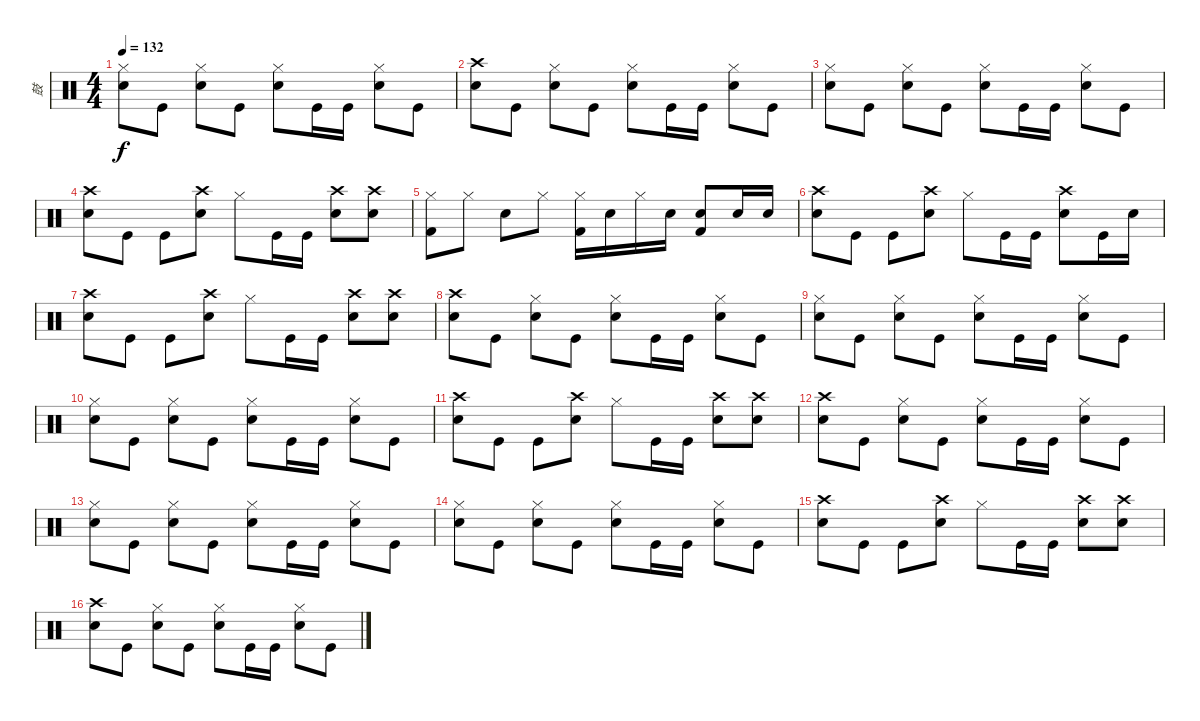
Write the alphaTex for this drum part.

\track ("鼓" "鼓") {instrument percussion}
\staff {score}
\articulation defaults
\ts (4 4)
\tempo 132
\clef neutral
\ks c
("Hi-Hat (closed)" "Electric Snare (hit)").8{dy f} "Kick (hit)".8 ("Hi-Hat (closed)" "Electric Snare (hit)").8 "Kick (hit)".8 ("Hi-Hat (closed)" "Electric Snare (hit)").8 "Kick (hit)".16 "Kick (hit)".16 ("Hi-Hat (closed)" "Electric Snare (hit)").8 "Kick (hit)".8 |
("Crash high (hit)" "Electric Snare (hit)").8 "Kick (hit)".8 ("Hi-Hat (closed)" "Electric Snare (hit)").8 "Kick (hit)".8 ("Hi-Hat (closed)" "Electric Snare (hit)").8 "Kick (hit)".16 "Kick (hit)".16 ("Hi-Hat (closed)" "Electric Snare (hit)").8 "Kick (hit)".8 |
("Hi-Hat (closed)" "Electric Snare (hit)").8 "Kick (hit)".8 ("Hi-Hat (closed)" "Electric Snare (hit)").8 "Kick (hit)".8 ("Hi-Hat (closed)" "Electric Snare (hit)").8 "Kick (hit)".16 "Kick (hit)".16 ("Hi-Hat (closed)" "Electric Snare (hit)").8 "Kick (hit)".8 |
("Crash high (hit)" "Electric Snare (hit)").8 "Kick (hit)".8 "Kick (hit)".8 ("Crash high (hit)" "Electric Snare (hit)").8 "Hi-Hat (closed)".8 "Kick (hit)".16 "Kick (hit)".16 ("Crash high (hit)" "Electric Snare (hit)").8 ("Crash high (hit)" "Electric Snare (hit)").8 |
("Hi-Hat (closed)" "Kick (hit) 2").8 "Hi-Hat (closed)".8 "Snare (hit) 2".8 "Hi-Hat (closed)".8 ("Hi-Hat (closed)" "Kick (hit) 2").16 "Snare (hit) 2".16 "Hi-Hat (closed)".16 "Snare (hit) 2".16 ("Snare (hit) 2" "Kick (hit) 2").8 "Snare (hit) 2".16 "Snare (hit) 2".16 |
("Crash high (hit)" "Electric Snare (hit)").8 "Kick (hit)".8 "Kick (hit)".8 ("Crash high (hit)" "Electric Snare (hit)").8 "Hi-Hat (closed)".8 "Kick (hit)".16 "Kick (hit)".16 ("Crash high (hit)" "Electric Snare (hit)").8 "Kick (hit)".16 "Electric Snare (hit)".16 |
("Crash high (hit)" "Electric Snare (hit)").8 "Kick (hit)".8 "Kick (hit)".8 ("Crash high (hit)" "Electric Snare (hit)").8 "Hi-Hat (closed)".8 "Kick (hit)".16 "Kick (hit)".16 ("Crash high (hit)" "Electric Snare (hit)").8 ("Crash high (hit)" "Electric Snare (hit)").8 |
("Crash high (hit)" "Electric Snare (hit)").8 "Kick (hit)".8 ("Hi-Hat (closed)" "Electric Snare (hit)").8 "Kick (hit)".8 ("Hi-Hat (closed)" "Electric Snare (hit)").8 "Kick (hit)".16 "Kick (hit)".16 ("Hi-Hat (closed)" "Electric Snare (hit)").8 "Kick (hit)".8 |
("Hi-Hat (closed)" "Electric Snare (hit)").8 "Kick (hit)".8 ("Hi-Hat (closed)" "Electric Snare (hit)").8 "Kick (hit)".8 ("Hi-Hat (closed)" "Electric Snare (hit)").8 "Kick (hit)".16 "Kick (hit)".16 ("Hi-Hat (closed)" "Electric Snare (hit)").8 "Kick (hit)".8 |
("Hi-Hat (closed)" "Electric Snare (hit)").8 "Kick (hit)".8 ("Hi-Hat (closed)" "Electric Snare (hit)").8 "Kick (hit)".8 ("Hi-Hat (closed)" "Electric Snare (hit)").8 "Kick (hit)".16 "Kick (hit)".16 ("Hi-Hat (closed)" "Electric Snare (hit)").8 "Kick (hit)".8 |
("Crash high (hit)" "Electric Snare (hit)").8 "Kick (hit)".8 "Kick (hit)".8 ("Crash high (hit)" "Electric Snare (hit)").8 "Hi-Hat (closed)".8 "Kick (hit)".16 "Kick (hit)".16 ("Crash high (hit)" "Electric Snare (hit)").8 ("Crash high (hit)" "Electric Snare (hit)").8 |
("Crash high (hit)" "Electric Snare (hit)").8 "Kick (hit)".8 ("Hi-Hat (closed)" "Electric Snare (hit)").8 "Kick (hit)".8 ("Hi-Hat (closed)" "Electric Snare (hit)").8 "Kick (hit)".16 "Kick (hit)".16 ("Hi-Hat (closed)" "Electric Snare (hit)").8 "Kick (hit)".8 |
("Hi-Hat (closed)" "Electric Snare (hit)").8 "Kick (hit)".8 ("Hi-Hat (closed)" "Electric Snare (hit)").8 "Kick (hit)".8 ("Hi-Hat (closed)" "Electric Snare (hit)").8 "Kick (hit)".16 "Kick (hit)".16 ("Hi-Hat (closed)" "Electric Snare (hit)").8 "Kick (hit)".8 |
("Hi-Hat (closed)" "Electric Snare (hit)").8 "Kick (hit)".8 ("Hi-Hat (closed)" "Electric Snare (hit)").8 "Kick (hit)".8 ("Hi-Hat (closed)" "Electric Snare (hit)").8 "Kick (hit)".16 "Kick (hit)".16 ("Hi-Hat (closed)" "Electric Snare (hit)").8 "Kick (hit)".8 |
("Crash high (hit)" "Electric Snare (hit)").8 "Kick (hit)".8 "Kick (hit)".8 ("Crash high (hit)" "Electric Snare (hit)").8 "Hi-Hat (closed)".8 "Kick (hit)".16 "Kick (hit)".16 ("Crash high (hit)" "Electric Snare (hit)").8 ("Crash high (hit)" "Electric Snare (hit)").8 |
("Crash high (hit)" "Electric Snare (hit)").8 "Kick (hit)".8 ("Hi-Hat (closed)" "Electric Snare (hit)").8 "Kick (hit)".8 ("Hi-Hat (closed)" "Electric Snare (hit)").8 "Kick (hit)".16 "Kick (hit)".16 ("Hi-Hat (closed)" "Electric Snare (hit)").8 "Kick (hit)".8
